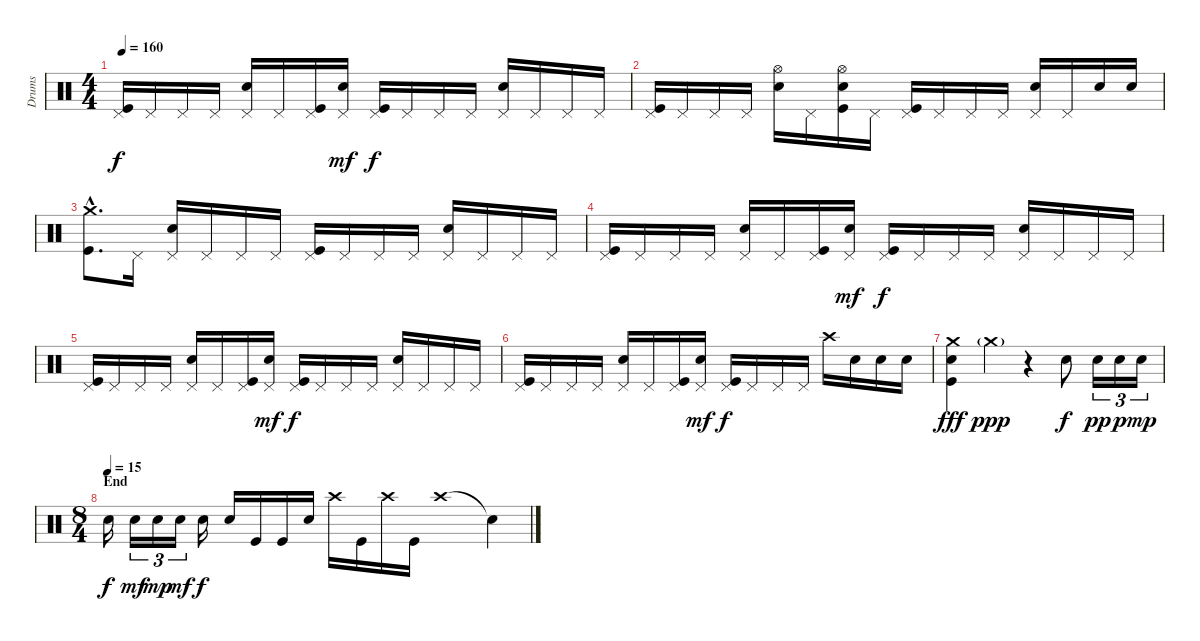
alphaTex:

\track ("Drums" "Drums") {instrument percussion}
\staff {score}
\articulation defaults
\ts (4 4)
\tempo 160
\clef neutral
\ks c
("Pedal Hi-Hat (hit)" "Kick (hit)").16{dy f} "Pedal Hi-Hat (hit)".16 "Pedal Hi-Hat (hit)".16 "Pedal Hi-Hat (hit)".16 ("Pedal Hi-Hat (hit)" "Electric Snare (hit)").16 "Pedal Hi-Hat (hit)".16 ("Pedal Hi-Hat (hit)" "Kick (hit)").16 ("Pedal Hi-Hat (hit)" "Electric Snare (hit)").16{dy mf} ("Pedal Hi-Hat (hit)" "Kick (hit)").16{dy f} "Pedal Hi-Hat (hit)".16 "Pedal Hi-Hat (hit)".16 "Pedal Hi-Hat (hit)".16 ("Pedal Hi-Hat (hit)" "Electric Snare (hit)").16 "Pedal Hi-Hat (hit)".16 "Pedal Hi-Hat (hit)".16 "Pedal Hi-Hat (hit)".16 |
("Pedal Hi-Hat (hit)" "Kick (hit)").16 "Pedal Hi-Hat (hit)".16 "Pedal Hi-Hat (hit)".16 "Pedal Hi-Hat (hit)".16 ("Hi-Hat (open)" "Electric Snare (hit)").16 "Pedal Hi-Hat (hit)".16 ("Hi-Hat (open)" "Electric Snare (hit)" "Kick (hit)").16 "Pedal Hi-Hat (hit)".16 ("Pedal Hi-Hat (hit)" "Kick (hit)").16 "Pedal Hi-Hat (hit)".16 "Pedal Hi-Hat (hit)".16 "Pedal Hi-Hat (hit)".16 ("Pedal Hi-Hat (hit)" "Electric Snare (hit)").16 "Pedal Hi-Hat (hit)".16 "Electric Snare (hit)".16 "Electric Snare (hit)".16 |
("Crash medium (hit)"{hac} "Kick (hit)"{hac}).8{d} "Pedal Hi-Hat (hit)".16 ("Pedal Hi-Hat (hit)" "Electric Snare (hit)").16 "Pedal Hi-Hat (hit)".16 "Pedal Hi-Hat (hit)".16 "Pedal Hi-Hat (hit)".16 ("Pedal Hi-Hat (hit)" "Kick (hit)").16 "Pedal Hi-Hat (hit)".16 "Pedal Hi-Hat (hit)".16 "Pedal Hi-Hat (hit)".16 ("Pedal Hi-Hat (hit)" "Electric Snare (hit)").16 "Pedal Hi-Hat (hit)".16 "Pedal Hi-Hat (hit)".16 "Pedal Hi-Hat (hit)".16 |
("Pedal Hi-Hat (hit)" "Kick (hit)").16 "Pedal Hi-Hat (hit)".16 "Pedal Hi-Hat (hit)".16 "Pedal Hi-Hat (hit)".16 ("Pedal Hi-Hat (hit)" "Electric Snare (hit)").16 "Pedal Hi-Hat (hit)".16 ("Pedal Hi-Hat (hit)" "Kick (hit)").16 ("Pedal Hi-Hat (hit)" "Electric Snare (hit)").16{dy mf} ("Pedal Hi-Hat (hit)" "Kick (hit)").16{dy f} "Pedal Hi-Hat (hit)".16 "Pedal Hi-Hat (hit)".16 "Pedal Hi-Hat (hit)".16 ("Pedal Hi-Hat (hit)" "Electric Snare (hit)").16 "Pedal Hi-Hat (hit)".16 "Pedal Hi-Hat (hit)".16 "Pedal Hi-Hat (hit)".16 |
("Pedal Hi-Hat (hit)" "Kick (hit)").16 "Pedal Hi-Hat (hit)".16 "Pedal Hi-Hat (hit)".16 "Pedal Hi-Hat (hit)".16 ("Pedal Hi-Hat (hit)" "Electric Snare (hit)").16 "Pedal Hi-Hat (hit)".16 ("Pedal Hi-Hat (hit)" "Kick (hit)").16 ("Pedal Hi-Hat (hit)" "Electric Snare (hit)").16{dy mf} ("Pedal Hi-Hat (hit)" "Kick (hit)").16{dy f} "Pedal Hi-Hat (hit)".16 "Pedal Hi-Hat (hit)".16 "Pedal Hi-Hat (hit)".16 ("Pedal Hi-Hat (hit)" "Electric Snare (hit)").16 "Pedal Hi-Hat (hit)".16 "Pedal Hi-Hat (hit)".16 "Pedal Hi-Hat (hit)".16 |
("Pedal Hi-Hat (hit)" "Kick (hit)").16 "Pedal Hi-Hat (hit)".16 "Pedal Hi-Hat (hit)".16 "Pedal Hi-Hat (hit)".16 ("Pedal Hi-Hat (hit)" "Electric Snare (hit)").16 "Pedal Hi-Hat (hit)".16 ("Pedal Hi-Hat (hit)" "Kick (hit)").16 ("Pedal Hi-Hat (hit)" "Electric Snare (hit)").16{dy mf} ("Pedal Hi-Hat (hit)" "Kick (hit)").16{dy f} "Pedal Hi-Hat (hit)".16 "Pedal Hi-Hat (hit)".16 "Pedal Hi-Hat (hit)".16 "Crash high (hit)".16 "Electric Snare (hit)".16 "Electric Snare (hit)".16 "Electric Snare (hit)".16 |
("Crash medium (hit)" "Electric Snare (hit)" "Kick (hit)").4{dy fff} "Crash medium (hit)"{g}.4{dy ppp} r.4 "Electric Snare (hit)".8{dy f} "Electric Snare (hit)".16{tu (3 2) dy pp} "Electric Snare (hit)".16{tu (3 2) dy p} "Electric Snare (hit)".16{tu (3 2) dy mp} |
\ts (8 4)
\section ("" "End")
\tempo (15)
"Electric Snare (hit)".16{dy f} "Electric Snare (hit)".16{tu (3 2) dy mf} "Electric Snare (hit)".16{tu (3 2) dy mp} "Electric Snare (hit)".16{tu (3 2) dy mf} "Electric Snare (hit)".16{dy f} "Electric Snare (hit)".16 "Kick (hit)".16 "Kick (hit)".16 "Electric Snare (hit)".16 "Crash high (hit)".16 "Kick (hit)".16 "Crash high (hit)".16 "Kick (hit)".16 "Crash high (hit)".1 "Snare (hit)"{t}.4
